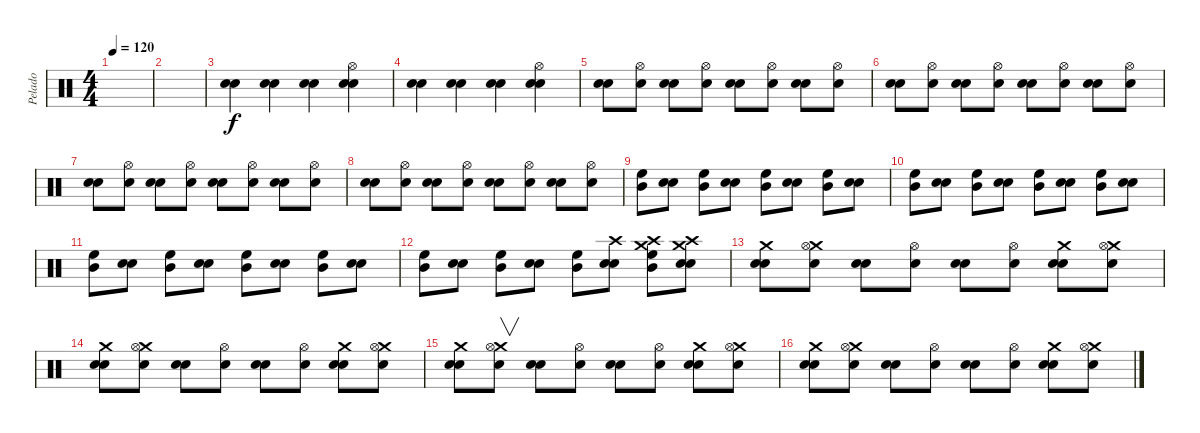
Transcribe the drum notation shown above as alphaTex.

\track ("Pelado" "Pelado") {instrument percussion}
\staff {score}
\articulation defaults
\ts (4 4)
\tempo 120
\clef neutral
\ks c
|
|
("Electric Snare (hit)" "Electric Snare (hit)").4 ("Electric Snare (hit)" "Electric Snare (hit)").4 ("Electric Snare (hit)" "Electric Snare (hit)").4 ("Hi-Hat (open)" "Electric Snare (hit)" "Electric Snare (hit)").4 |
("Electric Snare (hit)" "Electric Snare (hit)").4 ("Electric Snare (hit)" "Electric Snare (hit)").4 ("Electric Snare (hit)" "Electric Snare (hit)").4 ("Hi-Hat (open)" "Electric Snare (hit)" "Electric Snare (hit)").4 |
("Electric Snare (hit)" "Electric Snare (hit)").8 ("Hi-Hat (open)" "Electric Snare (hit)").8 ("Electric Snare (hit)" "Electric Snare (hit)").8 ("Electric Snare (hit)" "Hi-Hat (open)").8 ("Electric Snare (hit)" "Electric Snare (hit)").8 ("Electric Snare (hit)" "Hi-Hat (open)").8 ("Electric Snare (hit)" "Electric Snare (hit)").8 ("Electric Snare (hit)" "Hi-Hat (open)").8 |
("Electric Snare (hit)" "Electric Snare (hit)").8 ("Hi-Hat (open)" "Electric Snare (hit)").8 ("Electric Snare (hit)" "Electric Snare (hit)").8 ("Electric Snare (hit)" "Hi-Hat (open)").8 ("Electric Snare (hit)" "Electric Snare (hit)").8 ("Electric Snare (hit)" "Hi-Hat (open)").8 ("Electric Snare (hit)" "Electric Snare (hit)").8 ("Electric Snare (hit)" "Hi-Hat (open)").8 |
("Electric Snare (hit)" "Electric Snare (hit)").8 ("Hi-Hat (open)" "Electric Snare (hit)").8 ("Electric Snare (hit)" "Electric Snare (hit)").8 ("Electric Snare (hit)" "Hi-Hat (open)").8 ("Electric Snare (hit)" "Electric Snare (hit)").8 ("Electric Snare (hit)" "Hi-Hat (open)").8 ("Electric Snare (hit)" "Electric Snare (hit)").8 ("Electric Snare (hit)" "Hi-Hat (open)").8 |
("Electric Snare (hit)" "Electric Snare (hit)").8 ("Hi-Hat (open)" "Electric Snare (hit)").8 ("Electric Snare (hit)" "Electric Snare (hit)").8 ("Electric Snare (hit)" "Hi-Hat (open)").8 ("Electric Snare (hit)" "Electric Snare (hit)").8 ("Electric Snare (hit)" "Hi-Hat (open)").8 ("Electric Snare (hit)" "Electric Snare (hit)").8 ("Electric Snare (hit)" "Hi-Hat (open)").8 |
("High Floor Tom (hit)" "Mid Tom (hit)").8 ("Electric Snare (hit)" "Electric Snare (hit)").8 ("High Floor Tom (hit)" "Mid Tom (hit)").8 ("Electric Snare (hit)" "Electric Snare (hit)").8 ("High Floor Tom (hit)" "Mid Tom (hit)").8 ("Electric Snare (hit)" "Electric Snare (hit)").8 ("High Floor Tom (hit)" "Mid Tom (hit)").8 ("Electric Snare (hit)" "Electric Snare (hit)").8 |
("High Floor Tom (hit)" "Mid Tom (hit)").8 ("Electric Snare (hit)" "Electric Snare (hit)").8 ("High Floor Tom (hit)" "Mid Tom (hit)").8 ("Electric Snare (hit)" "Electric Snare (hit)").8 ("High Floor Tom (hit)" "Mid Tom (hit)").8 ("Electric Snare (hit)" "Electric Snare (hit)").8 ("High Floor Tom (hit)" "Mid Tom (hit)").8 ("Electric Snare (hit)" "Electric Snare (hit)").8 |
("High Floor Tom (hit)" "Mid Tom (hit)").8 ("Electric Snare (hit)" "Electric Snare (hit)").8 ("High Floor Tom (hit)" "Mid Tom (hit)").8 ("Electric Snare (hit)" "Electric Snare (hit)").8 ("High Floor Tom (hit)" "Mid Tom (hit)").8 ("Electric Snare (hit)" "Electric Snare (hit)").8 ("High Floor Tom (hit)" "Mid Tom (hit)").8 ("Electric Snare (hit)" "Electric Snare (hit)").8 |
("High Floor Tom (hit)" "Mid Tom (hit)").8 ("Electric Snare (hit)" "Electric Snare (hit)").8 ("High Floor Tom (hit)" "Mid Tom (hit)").8 ("Electric Snare (hit)" "Electric Snare (hit)").8 ("High Floor Tom (hit)" "Mid Tom (hit)").8 ("Crash high (hit)" "Electric Snare (hit)" "Electric Snare (hit)").8 ("Crash high (hit)" "Crash medium (hit)" "High Floor Tom (hit)" "Mid Tom (hit)").8 ("Crash high (hit)" "Crash medium (hit)" "Electric Snare (hit)" "Electric Snare (hit)").8 |
("Crash medium (hit)" "Electric Snare (hit)" "Electric Snare (hit)").8 ("Crash medium (hit)" "Hi-Hat (open)" "Electric Snare (hit)").8 ("Electric Snare (hit)" "Electric Snare (hit)").8 ("Electric Snare (hit)" "Hi-Hat (open)").8 ("Electric Snare (hit)" "Electric Snare (hit)").8 ("Electric Snare (hit)" "Hi-Hat (open)").8 ("Crash medium (hit)" "Electric Snare (hit)" "Electric Snare (hit)").8 ("Crash medium (hit)" "Electric Snare (hit)" "Hi-Hat (open)").8 |
("Crash medium (hit)" "Electric Snare (hit)" "Electric Snare (hit)").8 ("Crash medium (hit)" "Hi-Hat (open)" "Electric Snare (hit)").8 ("Electric Snare (hit)" "Electric Snare (hit)").8 ("Electric Snare (hit)" "Hi-Hat (open)").8 ("Electric Snare (hit)" "Electric Snare (hit)").8 ("Electric Snare (hit)" "Hi-Hat (open)").8 ("Crash medium (hit)" "Electric Snare (hit)" "Electric Snare (hit)").8 ("Crash medium (hit)" "Electric Snare (hit)" "Hi-Hat (open)").8 |
("Crash medium (hit)" "Electric Snare (hit)" "Electric Snare (hit)").8 ("Crash medium (hit)" "Hi-Hat (open)" "Electric Snare (hit)").8{v} ("Electric Snare (hit)" "Electric Snare (hit)").8 ("Electric Snare (hit)" "Hi-Hat (open)").8 ("Electric Snare (hit)" "Electric Snare (hit)").8 ("Electric Snare (hit)" "Hi-Hat (open)").8 ("Crash medium (hit)" "Electric Snare (hit)" "Electric Snare (hit)").8 ("Crash medium (hit)" "Electric Snare (hit)" "Hi-Hat (open)").8 |
("Crash medium (hit)" "Electric Snare (hit)" "Electric Snare (hit)").8 ("Crash medium (hit)" "Hi-Hat (open)" "Electric Snare (hit)").8 ("Electric Snare (hit)" "Electric Snare (hit)").8 ("Electric Snare (hit)" "Hi-Hat (open)").8 ("Electric Snare (hit)" "Electric Snare (hit)").8 ("Electric Snare (hit)" "Hi-Hat (open)").8 ("Crash medium (hit)" "Electric Snare (hit)" "Electric Snare (hit)").8 ("Crash medium (hit)" "Electric Snare (hit)" "Hi-Hat (open)").8
